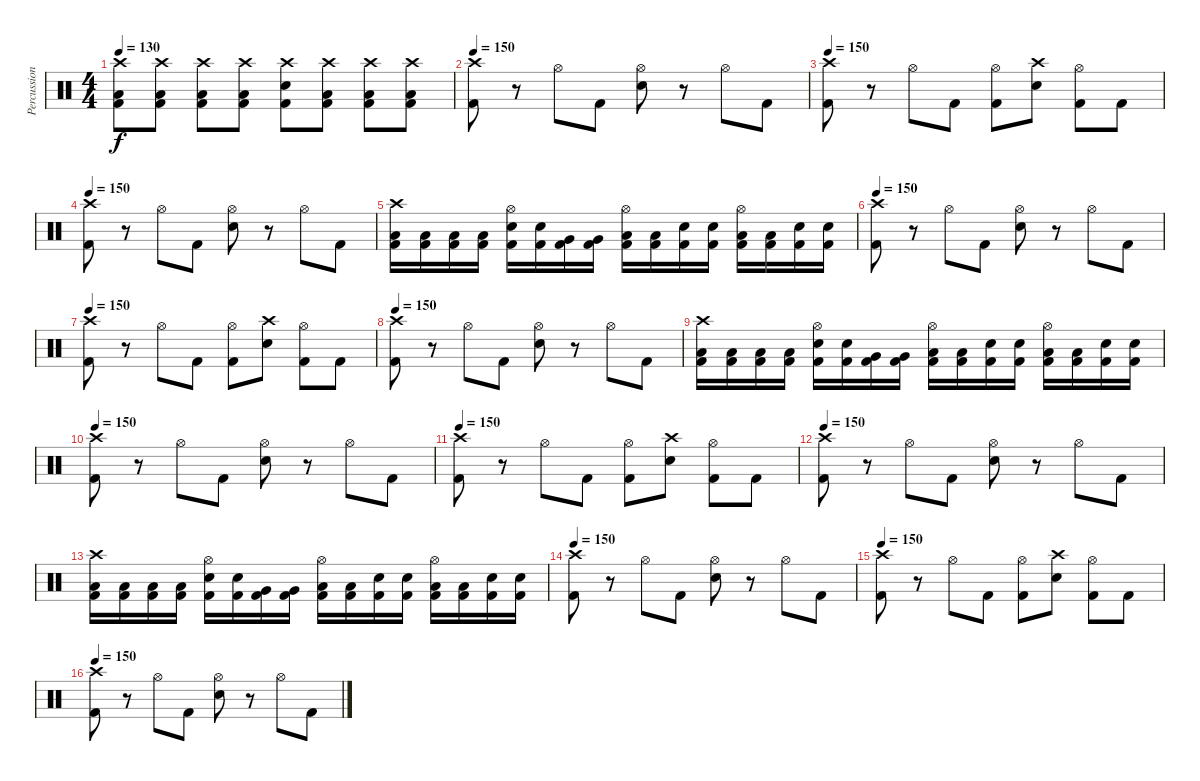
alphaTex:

\track ("Percussion" "Percussion") {instrument percussion}
\staff {score}
\articulation defaults
\ts (4 4)
\tempo 130
\clef neutral
\ks c
("Crash high (hit)" "Low Tom (hit)" "Kick (hit) 2").8{dy f} ("Crash high (hit)" "Low Tom (hit)" "Kick (hit) 2").8 ("Crash high (hit)" "Low Tom (hit)" "Kick (hit) 2").8 ("Crash high (hit)" "Low Tom (hit)" "Kick (hit) 2").8 ("Crash high (hit)" "Electric Snare (hit)" "Kick (hit) 2").8 ("Crash high (hit)" "Low Tom (hit)" "Kick (hit) 2").8 ("Crash high (hit)" "Low Tom (hit)" "Kick (hit) 2").8 ("Crash high (hit)" "Low Tom (hit)" "Kick (hit) 2").8 |
\tempo 150
("Crash high (hit)" "Kick (hit) 2").8 r.8 "Hi-Hat (open)".8 "Kick (hit) 2".8 ("Hi-Hat (open)" "Electric Snare (hit)").8 r.8 "Hi-Hat (open)".8 "Kick (hit) 2".8 |
\tempo 150
("Crash high (hit)" "Kick (hit) 2").8 r.8 "Hi-Hat (open)".8 "Kick (hit) 2".8 ("Hi-Hat (open)" "Kick (hit) 2").8 ("Crash high (hit)" "Electric Snare (hit)").8 ("Hi-Hat (open)" "Kick (hit) 2").8 "Kick (hit) 2".8 |
\tempo 150
("Crash high (hit)" "Kick (hit) 2").8 r.8 "Hi-Hat (open)".8 "Kick (hit) 2".8 ("Hi-Hat (open)" "Electric Snare (hit)").8 r.8 "Hi-Hat (open)".8 "Kick (hit) 2".8 |
("Crash high (hit)" "Low Tom (hit)" "Kick (hit) 2").16 ("Low Tom (hit)" "Kick (hit) 2").16 ("Low Tom (hit)" "Kick (hit) 2").16 ("Low Tom (hit)" "Kick (hit) 2").16 ("Hi-Hat (open)" "Electric Snare (hit)" "Kick (hit) 2").16 ("Electric Snare (hit)" "Kick (hit) 2").16 ("Very Low Tom (hit)" "Kick (hit) 2").16 ("Very Low Tom (hit)" "Kick (hit) 2").16 ("Hi-Hat (open)" "Low Tom (hit)" "Kick (hit) 2").16 ("Low Tom (hit)" "Kick (hit) 2").16 ("Electric Snare (hit)" "Kick (hit) 2").16 ("Electric Snare (hit)" "Kick (hit) 2").16 ("Hi-Hat (open)" "Low Tom (hit)" "Kick (hit) 2").16 ("Low Tom (hit)" "Kick (hit) 2").16 ("Electric Snare (hit)" "Kick (hit) 2").16 ("Electric Snare (hit)" "Kick (hit) 2").16 |
\tempo 150
("Crash high (hit)" "Kick (hit) 2").8 r.8 "Hi-Hat (open)".8 "Kick (hit) 2".8 ("Hi-Hat (open)" "Electric Snare (hit)").8 r.8 "Hi-Hat (open)".8 "Kick (hit) 2".8 |
\tempo 150
("Crash high (hit)" "Kick (hit) 2").8 r.8 "Hi-Hat (open)".8 "Kick (hit) 2".8 ("Hi-Hat (open)" "Kick (hit) 2").8 ("Crash high (hit)" "Electric Snare (hit)").8 ("Hi-Hat (open)" "Kick (hit) 2").8 "Kick (hit) 2".8 |
\tempo 150
("Crash high (hit)" "Kick (hit) 2").8 r.8 "Hi-Hat (open)".8 "Kick (hit) 2".8 ("Hi-Hat (open)" "Electric Snare (hit)").8 r.8 "Hi-Hat (open)".8 "Kick (hit) 2".8 |
("Crash high (hit)" "Low Tom (hit)" "Kick (hit) 2").16 ("Low Tom (hit)" "Kick (hit) 2").16 ("Low Tom (hit)" "Kick (hit) 2").16 ("Low Tom (hit)" "Kick (hit) 2").16 ("Hi-Hat (open)" "Electric Snare (hit)" "Kick (hit) 2").16 ("Electric Snare (hit)" "Kick (hit) 2").16 ("Very Low Tom (hit)" "Kick (hit) 2").16 ("Very Low Tom (hit)" "Kick (hit) 2").16 ("Hi-Hat (open)" "Low Tom (hit)" "Kick (hit) 2").16 ("Low Tom (hit)" "Kick (hit) 2").16 ("Electric Snare (hit)" "Kick (hit) 2").16 ("Electric Snare (hit)" "Kick (hit) 2").16 ("Hi-Hat (open)" "Low Tom (hit)" "Kick (hit) 2").16 ("Low Tom (hit)" "Kick (hit) 2").16 ("Electric Snare (hit)" "Kick (hit) 2").16 ("Electric Snare (hit)" "Kick (hit) 2").16 |
\tempo 150
("Crash high (hit)" "Kick (hit) 2").8 r.8 "Hi-Hat (open)".8 "Kick (hit) 2".8 ("Hi-Hat (open)" "Electric Snare (hit)").8 r.8 "Hi-Hat (open)".8 "Kick (hit) 2".8 |
\tempo 150
("Crash high (hit)" "Kick (hit) 2").8 r.8 "Hi-Hat (open)".8 "Kick (hit) 2".8 ("Hi-Hat (open)" "Kick (hit) 2").8 ("Crash high (hit)" "Electric Snare (hit)").8 ("Hi-Hat (open)" "Kick (hit) 2").8 "Kick (hit) 2".8 |
\tempo 150
("Crash high (hit)" "Kick (hit) 2").8 r.8 "Hi-Hat (open)".8 "Kick (hit) 2".8 ("Hi-Hat (open)" "Electric Snare (hit)").8 r.8 "Hi-Hat (open)".8 "Kick (hit) 2".8 |
("Crash high (hit)" "Low Tom (hit)" "Kick (hit) 2").16 ("Low Tom (hit)" "Kick (hit) 2").16 ("Low Tom (hit)" "Kick (hit) 2").16 ("Low Tom (hit)" "Kick (hit) 2").16 ("Hi-Hat (open)" "Electric Snare (hit)" "Kick (hit) 2").16 ("Electric Snare (hit)" "Kick (hit) 2").16 ("Very Low Tom (hit)" "Kick (hit) 2").16 ("Very Low Tom (hit)" "Kick (hit) 2").16 ("Hi-Hat (open)" "Low Tom (hit)" "Kick (hit) 2").16 ("Low Tom (hit)" "Kick (hit) 2").16 ("Electric Snare (hit)" "Kick (hit) 2").16 ("Electric Snare (hit)" "Kick (hit) 2").16 ("Hi-Hat (open)" "Low Tom (hit)" "Kick (hit) 2").16 ("Low Tom (hit)" "Kick (hit) 2").16 ("Electric Snare (hit)" "Kick (hit) 2").16 ("Electric Snare (hit)" "Kick (hit) 2").16 |
\tempo 150
("Crash high (hit)" "Kick (hit) 2").8 r.8 "Hi-Hat (open)".8 "Kick (hit) 2".8 ("Hi-Hat (open)" "Electric Snare (hit)").8 r.8 "Hi-Hat (open)".8 "Kick (hit) 2".8 |
\tempo 150
("Crash high (hit)" "Kick (hit) 2").8 r.8 "Hi-Hat (open)".8 "Kick (hit) 2".8 ("Hi-Hat (open)" "Kick (hit) 2").8 ("Crash high (hit)" "Electric Snare (hit)").8 ("Hi-Hat (open)" "Kick (hit) 2").8 "Kick (hit) 2".8 |
\tempo 150
("Crash high (hit)" "Kick (hit) 2").8 r.8 "Hi-Hat (open)".8 "Kick (hit) 2".8 ("Hi-Hat (open)" "Electric Snare (hit)").8 r.8 "Hi-Hat (open)".8 "Kick (hit) 2".8
